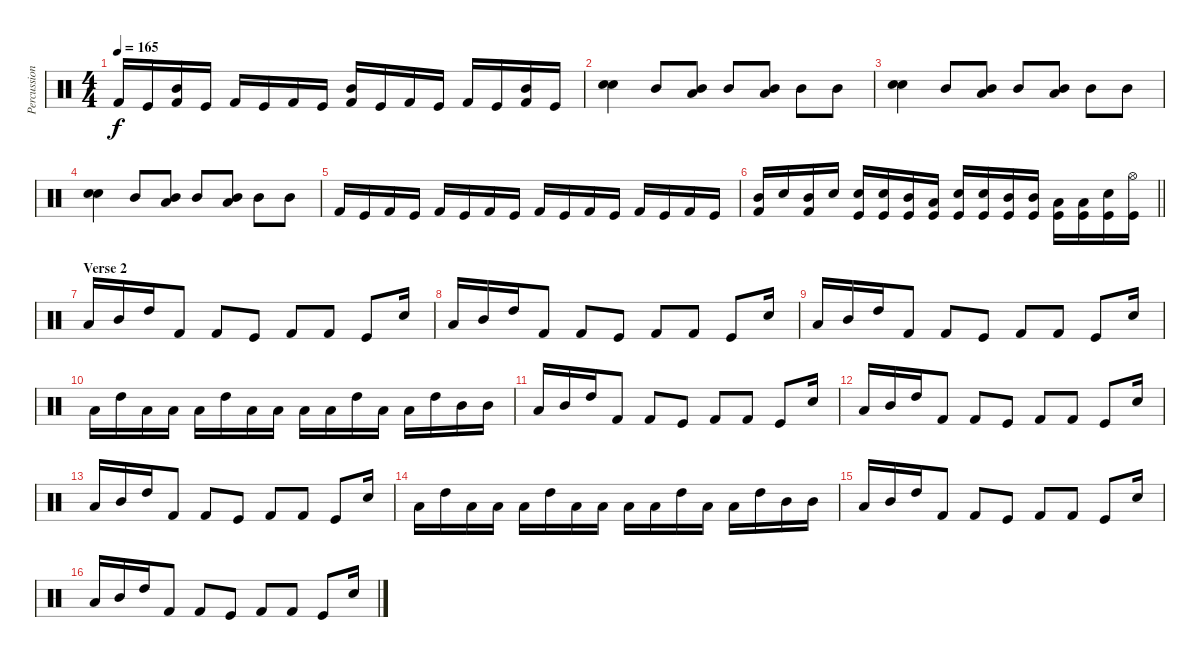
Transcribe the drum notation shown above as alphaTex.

\track ("Percussion" "Percussion") {instrument percussion}
\staff {score}
\articulation defaults
\ts (4 4)
\tempo 165
\clef neutral
\ks c "Kick (hit) 2".16{dy f} "Kick (hit)".16
("Kick (hit) 2" "Mid Tom (hit)").16 "Kick (hit)".16 "Kick (hit) 2".16 "Kick (hit)".16 "Kick (hit) 2".16 "Kick (hit)".16 ("Kick (hit) 2" "Mid Tom (hit)").16 "Kick (hit)".16 "Kick (hit) 2".16 "Kick (hit)".16 "Kick (hit) 2".16 "Kick (hit)".16 ("Kick (hit) 2" "Mid Tom (hit)").16 "Kick (hit)".16 |
("Electric Snare (hit)" "Snare (hit) 2").4 "Mid Tom (hit)".8 ("Low Tom (hit)" "Mid Tom (hit)").8 "Mid Tom (hit)".8 ("Low Tom (hit)" "Mid Tom (hit)").8 "Mid Tom (hit)".8 "Mid Tom (hit)".8 |
("Electric Snare (hit)" "Snare (hit) 2").4 "Mid Tom (hit)".8 ("Low Tom (hit)" "Mid Tom (hit)").8 "Mid Tom (hit)".8 ("Low Tom (hit)" "Mid Tom (hit)").8 "Mid Tom (hit)".8 "Mid Tom (hit)".8 |
("Electric Snare (hit)" "Snare (hit) 2").4 "Mid Tom (hit)".8 ("Low Tom (hit)" "Mid Tom (hit)").8 "Mid Tom (hit)".8 ("Low Tom (hit)" "Mid Tom (hit)").8 "Mid Tom (hit)".8 "Mid Tom (hit)".8 |
"Kick (hit) 2".16 "Kick (hit)".16 "Kick (hit) 2".16 "Kick (hit)".16 "Kick (hit) 2".16 "Kick (hit)".16 "Kick (hit) 2".16 "Kick (hit)".16 "Kick (hit) 2".16 "Kick (hit)".16 "Kick (hit) 2".16 "Kick (hit)".16 "Kick (hit) 2".16 "Kick (hit)".16 "Kick (hit) 2".16 "Kick (hit)".16 |
\barLineRight lightlight
("Mid Tom (hit)" "Kick (hit) 2").16 "Electric Snare (hit)".16 ("Mid Tom (hit)" "Kick (hit) 2").16 "Electric Snare (hit)".16 ("Kick (hit)" "Electric Snare (hit)").16 ("Kick (hit)" "Snare (hit) 2").16 ("Kick (hit)" "Mid Tom (hit)").16 ("Kick (hit)" "Low Tom (hit)").16 ("Kick (hit)" "Electric Snare (hit)").16 ("Kick (hit)" "Snare (hit) 2").16 ("Kick (hit)" "Mid Tom (hit)").16 ("Kick (hit)" "Mid Tom (hit)").16 ("Kick (hit)" "Low Tom (hit)").16 ("Kick (hit)" "Low Tom (hit)").16 ("Kick (hit)" "Electric Snare (hit)").16 ("Kick (hit)" "Hi-Hat (open)").16 |
\section ("" "Verse 2")
"Low Tom (hit)".16 "Mid Tom (hit)".16 "High Tom (hit)".16 "Kick (hit) 2".8 "Kick (hit) 2".8 "Kick (hit)".8 "Kick (hit) 2".8 "Kick (hit) 2".8 "Kick (hit)".8 "Electric Snare (hit)".16 |
"Low Tom (hit)".16 "Mid Tom (hit)".16 "High Tom (hit)".16 "Kick (hit) 2".8 "Kick (hit) 2".8 "Kick (hit)".8 "Kick (hit) 2".8 "Kick (hit) 2".8 "Kick (hit)".8 "Electric Snare (hit)".16 |
"Low Tom (hit)".16 "Mid Tom (hit)".16 "High Tom (hit)".16 "Kick (hit) 2".8 "Kick (hit) 2".8 "Kick (hit)".8 "Kick (hit) 2".8 "Kick (hit) 2".8 "Kick (hit)".8 "Electric Snare (hit)".16 |
"Low Tom (hit)".16 "High Tom (hit)".16 "Low Tom (hit)".16 "Low Tom (hit)".16 "Low Tom (hit)".16 "High Tom (hit)".16 "Low Tom (hit)".16 "Low Tom (hit)".16 "Low Tom (hit)".16 "Low Tom (hit)".16 "High Tom (hit)".16 "Low Tom (hit)".16 "Low Tom (hit)".16 "High Tom (hit)".16 "Mid Tom (hit)".16 "Mid Tom (hit)".16 |
"Low Tom (hit)".16 "Mid Tom (hit)".16 "High Tom (hit)".16 "Kick (hit) 2".8 "Kick (hit) 2".8 "Kick (hit)".8 "Kick (hit) 2".8 "Kick (hit) 2".8 "Kick (hit)".8 "Electric Snare (hit)".16 |
"Low Tom (hit)".16 "Mid Tom (hit)".16 "High Tom (hit)".16 "Kick (hit) 2".8 "Kick (hit) 2".8 "Kick (hit)".8 "Kick (hit) 2".8 "Kick (hit) 2".8 "Kick (hit)".8 "Electric Snare (hit)".16 |
"Low Tom (hit)".16 "Mid Tom (hit)".16 "High Tom (hit)".16 "Kick (hit) 2".8 "Kick (hit) 2".8 "Kick (hit)".8 "Kick (hit) 2".8 "Kick (hit) 2".8 "Kick (hit)".8 "Electric Snare (hit)".16 |
"Low Tom (hit)".16 "High Tom (hit)".16 "Low Tom (hit)".16 "Low Tom (hit)".16 "Low Tom (hit)".16 "High Tom (hit)".16 "Low Tom (hit)".16 "Low Tom (hit)".16 "Low Tom (hit)".16 "Low Tom (hit)".16 "High Tom (hit)".16 "Low Tom (hit)".16 "Low Tom (hit)".16 "High Tom (hit)".16 "Mid Tom (hit)".16 "Mid Tom (hit)".16 |
"Low Tom (hit)".16 "Mid Tom (hit)".16 "High Tom (hit)".16 "Kick (hit) 2".8 "Kick (hit) 2".8 "Kick (hit)".8 "Kick (hit) 2".8 "Kick (hit) 2".8 "Kick (hit)".8 "Electric Snare (hit)".16 |
"Low Tom (hit)".16 "Mid Tom (hit)".16 "High Tom (hit)".16 "Kick (hit) 2".8 "Kick (hit) 2".8 "Kick (hit)".8 "Kick (hit) 2".8 "Kick (hit) 2".8 "Kick (hit)".8 "Electric Snare (hit)".16
